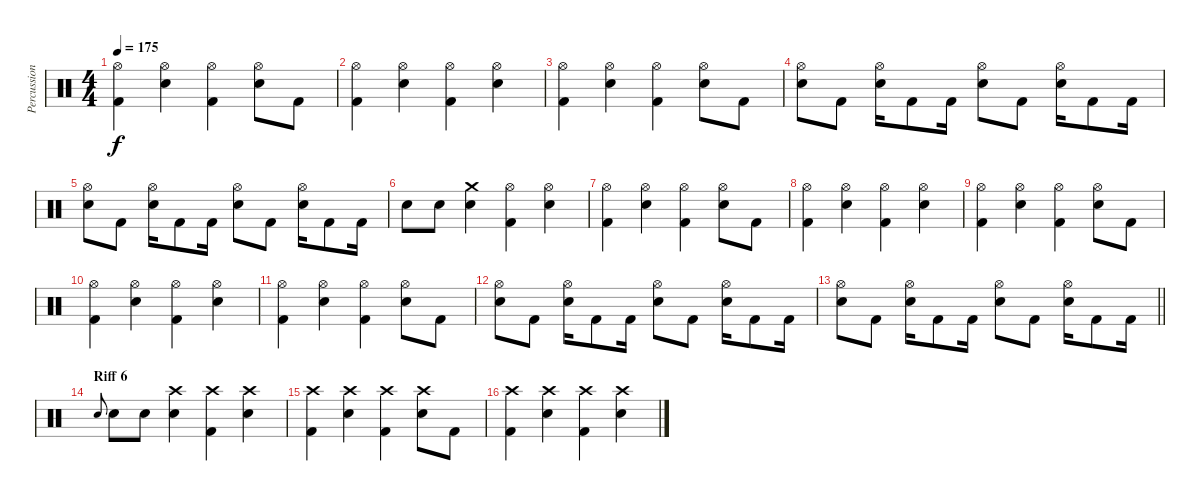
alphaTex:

\track ("Percussion" "Percussion") {instrument percussion}
\staff {score}
\articulation defaults
\ts (4 4)
\tempo 175
\clef neutral
\ks c
("Hi-Hat (open)" "Kick (hit) 2").4{dy f} ("Hi-Hat (open)" "Electric Snare (hit)").4 ("Hi-Hat (open)" "Kick (hit) 2").4 ("Hi-Hat (open)" "Electric Snare (hit)").8 "Kick (hit) 2".8 |
("Hi-Hat (open)" "Kick (hit) 2").4 ("Hi-Hat (open)" "Electric Snare (hit)").4 ("Hi-Hat (open)" "Kick (hit) 2").4 ("Hi-Hat (open)" "Electric Snare (hit)").4 |
("Hi-Hat (open)" "Kick (hit) 2").4 ("Hi-Hat (open)" "Electric Snare (hit)").4 ("Hi-Hat (open)" "Kick (hit) 2").4 ("Hi-Hat (open)" "Electric Snare (hit)").8 "Kick (hit) 2".8 |
("Hi-Hat (open)" "Electric Snare (hit)").8 "Kick (hit) 2".8 ("Hi-Hat (open)" "Electric Snare (hit)").16 "Kick (hit) 2".8 "Kick (hit) 2".16 ("Hi-Hat (open)" "Electric Snare (hit)").8 "Kick (hit) 2".8 ("Hi-Hat (open)" "Electric Snare (hit)").16 "Kick (hit) 2".8 "Kick (hit) 2".16 |
("Hi-Hat (open)" "Electric Snare (hit)").8 "Kick (hit) 2".8 ("Hi-Hat (open)" "Electric Snare (hit)").16 "Kick (hit) 2".8 "Kick (hit) 2".16 ("Hi-Hat (open)" "Electric Snare (hit)").8 "Kick (hit) 2".8 ("Hi-Hat (open)" "Electric Snare (hit)").16 "Kick (hit) 2".8 "Kick (hit) 2".16 |
"Electric Snare (hit)".8 "Electric Snare (hit)".8 ("Crash medium (hit)" "Electric Snare (hit)").4 ("Hi-Hat (open)" "Kick (hit) 2").4 ("Hi-Hat (open)" "Electric Snare (hit)").4 |
("Hi-Hat (open)" "Kick (hit) 2").4 ("Hi-Hat (open)" "Electric Snare (hit)").4 ("Hi-Hat (open)" "Kick (hit) 2").4 ("Hi-Hat (open)" "Electric Snare (hit)").8 "Kick (hit) 2".8 |
("Hi-Hat (open)" "Kick (hit) 2").4 ("Hi-Hat (open)" "Electric Snare (hit)").4 ("Hi-Hat (open)" "Kick (hit) 2").4 ("Hi-Hat (open)" "Electric Snare (hit)").4 |
("Hi-Hat (open)" "Kick (hit) 2").4 ("Hi-Hat (open)" "Electric Snare (hit)").4 ("Hi-Hat (open)" "Kick (hit) 2").4 ("Hi-Hat (open)" "Electric Snare (hit)").8 "Kick (hit) 2".8 |
("Hi-Hat (open)" "Kick (hit) 2").4 ("Hi-Hat (open)" "Electric Snare (hit)").4 ("Hi-Hat (open)" "Kick (hit) 2").4 ("Hi-Hat (open)" "Electric Snare (hit)").4 |
("Hi-Hat (open)" "Kick (hit) 2").4 ("Hi-Hat (open)" "Electric Snare (hit)").4 ("Hi-Hat (open)" "Kick (hit) 2").4 ("Hi-Hat (open)" "Electric Snare (hit)").8 "Kick (hit) 2".8 |
("Hi-Hat (open)" "Electric Snare (hit)").8 "Kick (hit) 2".8 ("Hi-Hat (open)" "Electric Snare (hit)").16 "Kick (hit) 2".8 "Kick (hit) 2".16 ("Hi-Hat (open)" "Electric Snare (hit)").8 "Kick (hit) 2".8 ("Hi-Hat (open)" "Electric Snare (hit)").16 "Kick (hit) 2".8 "Kick (hit) 2".16 |
\barLineRight lightlight
("Hi-Hat (open)" "Electric Snare (hit)").8 "Kick (hit) 2".8 ("Hi-Hat (open)" "Electric Snare (hit)").16 "Kick (hit) 2".8 "Kick (hit) 2".16 ("Hi-Hat (open)" "Electric Snare (hit)").8 "Kick (hit) 2".8 ("Hi-Hat (open)" "Electric Snare (hit)").16 "Kick (hit) 2".8 "Kick (hit) 2".16 |
\section ("" "Riff 6")
"Electric Snare (hit)".8{gr onbeat} "Electric Snare (hit)".8 "Electric Snare (hit)".8 ("Crash high (hit)" "Electric Snare (hit)").4 ("Crash high (hit)" "Kick (hit) 2").4 ("Crash high (hit)" "Electric Snare (hit)").4 |
("Crash high (hit)" "Kick (hit) 2").4 ("Crash high (hit)" "Electric Snare (hit)").4 ("Crash high (hit)" "Kick (hit) 2").4 ("Crash high (hit)" "Electric Snare (hit)").8 "Kick (hit) 2".8 |
("Crash high (hit)" "Kick (hit) 2").4 ("Crash high (hit)" "Electric Snare (hit)").4 ("Crash high (hit)" "Kick (hit) 2").4 ("Crash high (hit)" "Electric Snare (hit)").4
